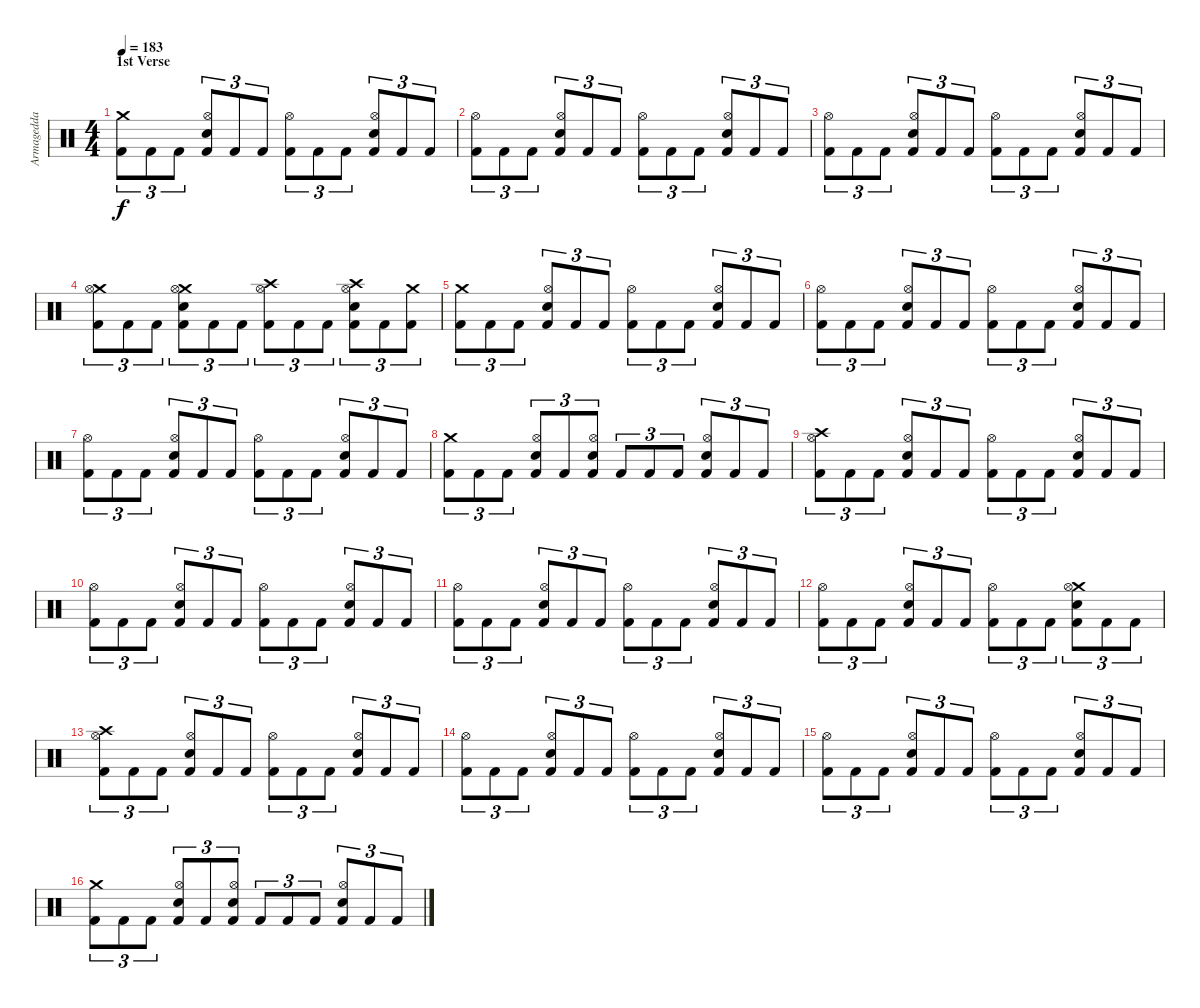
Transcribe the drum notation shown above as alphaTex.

\track ("Armagedda" "Armagedda") {instrument percussion}
\staff {score}
\articulation defaults
\ts (4 4)
\section ("" "1st Verse")
\tempo 183
\clef neutral
\ks c
("Crash medium (hit)" "Kick (hit) 2").8{tu (3 2) dy f} "Kick (hit) 2".8{tu (3 2)} "Kick (hit) 2".8{tu (3 2)} ("Hi-Hat (open)" "Electric Snare (hit)" "Kick (hit) 2").8{tu (3 2)} "Kick (hit) 2".8{tu (3 2)} "Kick (hit) 2".8{tu (3 2)} ("Hi-Hat (open)" "Kick (hit) 2").8{tu (3 2)} "Kick (hit) 2".8{tu (3 2)} "Kick (hit) 2".8{tu (3 2)} ("Hi-Hat (open)" "Electric Snare (hit)" "Kick (hit) 2").8{tu (3 2)} "Kick (hit) 2".8{tu (3 2)} "Kick (hit) 2".8{tu (3 2)} |
("Hi-Hat (open)" "Kick (hit) 2").8{tu (3 2)} "Kick (hit) 2".8{tu (3 2)} "Kick (hit) 2".8{tu (3 2)} ("Hi-Hat (open)" "Electric Snare (hit)" "Kick (hit) 2").8{tu (3 2)} "Kick (hit) 2".8{tu (3 2)} "Kick (hit) 2".8{tu (3 2)} ("Hi-Hat (open)" "Kick (hit) 2").8{tu (3 2)} "Kick (hit) 2".8{tu (3 2)} "Kick (hit) 2".8{tu (3 2)} ("Hi-Hat (open)" "Electric Snare (hit)" "Kick (hit) 2").8{tu (3 2)} "Kick (hit) 2".8{tu (3 2)} "Kick (hit) 2".8{tu (3 2)} |
("Hi-Hat (open)" "Kick (hit) 2").8{tu (3 2)} "Kick (hit) 2".8{tu (3 2)} "Kick (hit) 2".8{tu (3 2)} ("Hi-Hat (open)" "Electric Snare (hit)" "Kick (hit) 2").8{tu (3 2)} "Kick (hit) 2".8{tu (3 2)} "Kick (hit) 2".8{tu (3 2)} ("Hi-Hat (open)" "Kick (hit) 2").8{tu (3 2)} "Kick (hit) 2".8{tu (3 2)} "Kick (hit) 2".8{tu (3 2)} ("Hi-Hat (open)" "Electric Snare (hit)" "Kick (hit) 2").8{tu (3 2)} "Kick (hit) 2".8{tu (3 2)} "Kick (hit) 2".8{tu (3 2)} |
("Crash medium (hit)" "Hi-Hat (open)" "Kick (hit) 2").8{tu (3 2)} "Kick (hit) 2".8{tu (3 2)} "Kick (hit) 2".8{tu (3 2)} ("Crash medium (hit)" "Hi-Hat (open)" "Electric Snare (hit)" "Kick (hit) 2").8{tu (3 2)} "Kick (hit) 2".8{tu (3 2)} "Kick (hit) 2".8{tu (3 2)} ("Crash high (hit)" "Hi-Hat (open)" "Kick (hit) 2").8{tu (3 2)} "Kick (hit) 2".8{tu (3 2)} "Kick (hit) 2".8{tu (3 2)} ("Crash high (hit)" "Hi-Hat (open)" "Electric Snare (hit)" "Kick (hit) 2").8{tu (3 2)} "Kick (hit) 2".8{tu (3 2)} ("Crash medium (hit)" "Kick (hit) 2").8{tu (3 2)} |
("Crash medium (hit)" "Kick (hit) 2").8{tu (3 2)} "Kick (hit) 2".8{tu (3 2)} "Kick (hit) 2".8{tu (3 2)} ("Hi-Hat (open)" "Electric Snare (hit)" "Kick (hit) 2").8{tu (3 2)} "Kick (hit) 2".8{tu (3 2)} "Kick (hit) 2".8{tu (3 2)} ("Hi-Hat (open)" "Kick (hit) 2").8{tu (3 2)} "Kick (hit) 2".8{tu (3 2)} "Kick (hit) 2".8{tu (3 2)} ("Hi-Hat (open)" "Electric Snare (hit)" "Kick (hit) 2").8{tu (3 2)} "Kick (hit) 2".8{tu (3 2)} "Kick (hit) 2".8{tu (3 2)} |
("Hi-Hat (open)" "Kick (hit) 2").8{tu (3 2)} "Kick (hit) 2".8{tu (3 2)} "Kick (hit) 2".8{tu (3 2)} ("Hi-Hat (open)" "Electric Snare (hit)" "Kick (hit) 2").8{tu (3 2)} "Kick (hit) 2".8{tu (3 2)} "Kick (hit) 2".8{tu (3 2)} ("Hi-Hat (open)" "Kick (hit) 2").8{tu (3 2)} "Kick (hit) 2".8{tu (3 2)} "Kick (hit) 2".8{tu (3 2)} ("Hi-Hat (open)" "Electric Snare (hit)" "Kick (hit) 2").8{tu (3 2)} "Kick (hit) 2".8{tu (3 2)} "Kick (hit) 2".8{tu (3 2)} |
("Hi-Hat (open)" "Kick (hit) 2").8{tu (3 2)} "Kick (hit) 2".8{tu (3 2)} "Kick (hit) 2".8{tu (3 2)} ("Hi-Hat (open)" "Electric Snare (hit)" "Kick (hit) 2").8{tu (3 2)} "Kick (hit) 2".8{tu (3 2)} "Kick (hit) 2".8{tu (3 2)} ("Hi-Hat (open)" "Kick (hit) 2").8{tu (3 2)} "Kick (hit) 2".8{tu (3 2)} "Kick (hit) 2".8{tu (3 2)} ("Hi-Hat (open)" "Electric Snare (hit)" "Kick (hit) 2").8{tu (3 2)} "Kick (hit) 2".8{tu (3 2)} "Kick (hit) 2".8{tu (3 2)} |
("Crash medium (hit)" "Kick (hit) 2").8{tu (3 2)} "Kick (hit) 2".8{tu (3 2)} "Kick (hit) 2".8{tu (3 2)} ("Hi-Hat (open)" "Electric Snare (hit)" "Kick (hit) 2").8{tu (3 2)} "Kick (hit) 2".8{tu (3 2)} ("Hi-Hat (open)" "Electric Snare (hit)" "Kick (hit) 2").8{tu (3 2)} "Kick (hit) 2".8{tu (3 2)} "Kick (hit) 2".8{tu (3 2)} "Kick (hit) 2".8{tu (3 2)} ("Hi-Hat (open)" "Electric Snare (hit)" "Kick (hit) 2").8{tu (3 2)} "Kick (hit) 2".8{tu (3 2)} "Kick (hit) 2".8{tu (3 2)} |
("Crash high (hit)" "Hi-Hat (open)" "Kick (hit) 2").8{tu (3 2)} "Kick (hit) 2".8{tu (3 2)} "Kick (hit) 2".8{tu (3 2)} ("Hi-Hat (open)" "Electric Snare (hit)" "Kick (hit) 2").8{tu (3 2)} "Kick (hit) 2".8{tu (3 2)} "Kick (hit) 2".8{tu (3 2)} ("Hi-Hat (open)" "Kick (hit) 2").8{tu (3 2)} "Kick (hit) 2".8{tu (3 2)} "Kick (hit) 2".8{tu (3 2)} ("Hi-Hat (open)" "Electric Snare (hit)" "Kick (hit) 2").8{tu (3 2)} "Kick (hit) 2".8{tu (3 2)} "Kick (hit) 2".8{tu (3 2)} |
("Hi-Hat (open)" "Kick (hit) 2").8{tu (3 2)} "Kick (hit) 2".8{tu (3 2)} "Kick (hit) 2".8{tu (3 2)} ("Hi-Hat (open)" "Electric Snare (hit)" "Kick (hit) 2").8{tu (3 2)} "Kick (hit) 2".8{tu (3 2)} "Kick (hit) 2".8{tu (3 2)} ("Hi-Hat (open)" "Kick (hit) 2").8{tu (3 2)} "Kick (hit) 2".8{tu (3 2)} "Kick (hit) 2".8{tu (3 2)} ("Hi-Hat (open)" "Electric Snare (hit)" "Kick (hit) 2").8{tu (3 2)} "Kick (hit) 2".8{tu (3 2)} "Kick (hit) 2".8{tu (3 2)} |
("Hi-Hat (open)" "Kick (hit) 2").8{tu (3 2)} "Kick (hit) 2".8{tu (3 2)} "Kick (hit) 2".8{tu (3 2)} ("Hi-Hat (open)" "Electric Snare (hit)" "Kick (hit) 2").8{tu (3 2)} "Kick (hit) 2".8{tu (3 2)} "Kick (hit) 2".8{tu (3 2)} ("Hi-Hat (open)" "Kick (hit) 2").8{tu (3 2)} "Kick (hit) 2".8{tu (3 2)} "Kick (hit) 2".8{tu (3 2)} ("Hi-Hat (open)" "Electric Snare (hit)" "Kick (hit) 2").8{tu (3 2)} "Kick (hit) 2".8{tu (3 2)} "Kick (hit) 2".8{tu (3 2)} |
("Hi-Hat (open)" "Kick (hit) 2").8{tu (3 2)} "Kick (hit) 2".8{tu (3 2)} "Kick (hit) 2".8{tu (3 2)} ("Hi-Hat (open)" "Electric Snare (hit)" "Kick (hit) 2").8{tu (3 2)} "Kick (hit) 2".8{tu (3 2)} "Kick (hit) 2".8{tu (3 2)} ("Hi-Hat (open)" "Kick (hit) 2").8{tu (3 2)} "Kick (hit) 2".8{tu (3 2)} "Kick (hit) 2".8{tu (3 2)} ("Crash medium (hit)" "Hi-Hat (open)" "Electric Snare (hit)" "Kick (hit) 2").8{tu (3 2)} "Kick (hit) 2".8{tu (3 2)} "Kick (hit) 2".8{tu (3 2)} |
("Crash high (hit)" "Hi-Hat (open)" "Kick (hit) 2").8{tu (3 2)} "Kick (hit) 2".8{tu (3 2)} "Kick (hit) 2".8{tu (3 2)} ("Hi-Hat (open)" "Electric Snare (hit)" "Kick (hit) 2").8{tu (3 2)} "Kick (hit) 2".8{tu (3 2)} "Kick (hit) 2".8{tu (3 2)} ("Hi-Hat (open)" "Kick (hit) 2").8{tu (3 2)} "Kick (hit) 2".8{tu (3 2)} "Kick (hit) 2".8{tu (3 2)} ("Hi-Hat (open)" "Electric Snare (hit)" "Kick (hit) 2").8{tu (3 2)} "Kick (hit) 2".8{tu (3 2)} "Kick (hit) 2".8{tu (3 2)} |
("Hi-Hat (open)" "Kick (hit) 2").8{tu (3 2)} "Kick (hit) 2".8{tu (3 2)} "Kick (hit) 2".8{tu (3 2)} ("Hi-Hat (open)" "Electric Snare (hit)" "Kick (hit) 2").8{tu (3 2)} "Kick (hit) 2".8{tu (3 2)} "Kick (hit) 2".8{tu (3 2)} ("Hi-Hat (open)" "Kick (hit) 2").8{tu (3 2)} "Kick (hit) 2".8{tu (3 2)} "Kick (hit) 2".8{tu (3 2)} ("Hi-Hat (open)" "Electric Snare (hit)" "Kick (hit) 2").8{tu (3 2)} "Kick (hit) 2".8{tu (3 2)} "Kick (hit) 2".8{tu (3 2)} |
("Hi-Hat (open)" "Kick (hit) 2").8{tu (3 2)} "Kick (hit) 2".8{tu (3 2)} "Kick (hit) 2".8{tu (3 2)} ("Hi-Hat (open)" "Electric Snare (hit)" "Kick (hit) 2").8{tu (3 2)} "Kick (hit) 2".8{tu (3 2)} "Kick (hit) 2".8{tu (3 2)} ("Hi-Hat (open)" "Kick (hit) 2").8{tu (3 2)} "Kick (hit) 2".8{tu (3 2)} "Kick (hit) 2".8{tu (3 2)} ("Hi-Hat (open)" "Electric Snare (hit)" "Kick (hit) 2").8{tu (3 2)} "Kick (hit) 2".8{tu (3 2)} "Kick (hit) 2".8{tu (3 2)} |
("Crash medium (hit)" "Kick (hit) 2").8{tu (3 2)} "Kick (hit) 2".8{tu (3 2)} "Kick (hit) 2".8{tu (3 2)} ("Hi-Hat (open)" "Electric Snare (hit)" "Kick (hit) 2").8{tu (3 2)} "Kick (hit) 2".8{tu (3 2)} ("Hi-Hat (open)" "Electric Snare (hit)" "Kick (hit) 2").8{tu (3 2)} "Kick (hit) 2".8{tu (3 2)} "Kick (hit) 2".8{tu (3 2)} "Kick (hit) 2".8{tu (3 2)} ("Hi-Hat (open)" "Electric Snare (hit)" "Kick (hit) 2").8{tu (3 2)} "Kick (hit) 2".8{tu (3 2)} "Kick (hit) 2".8{tu (3 2)}
